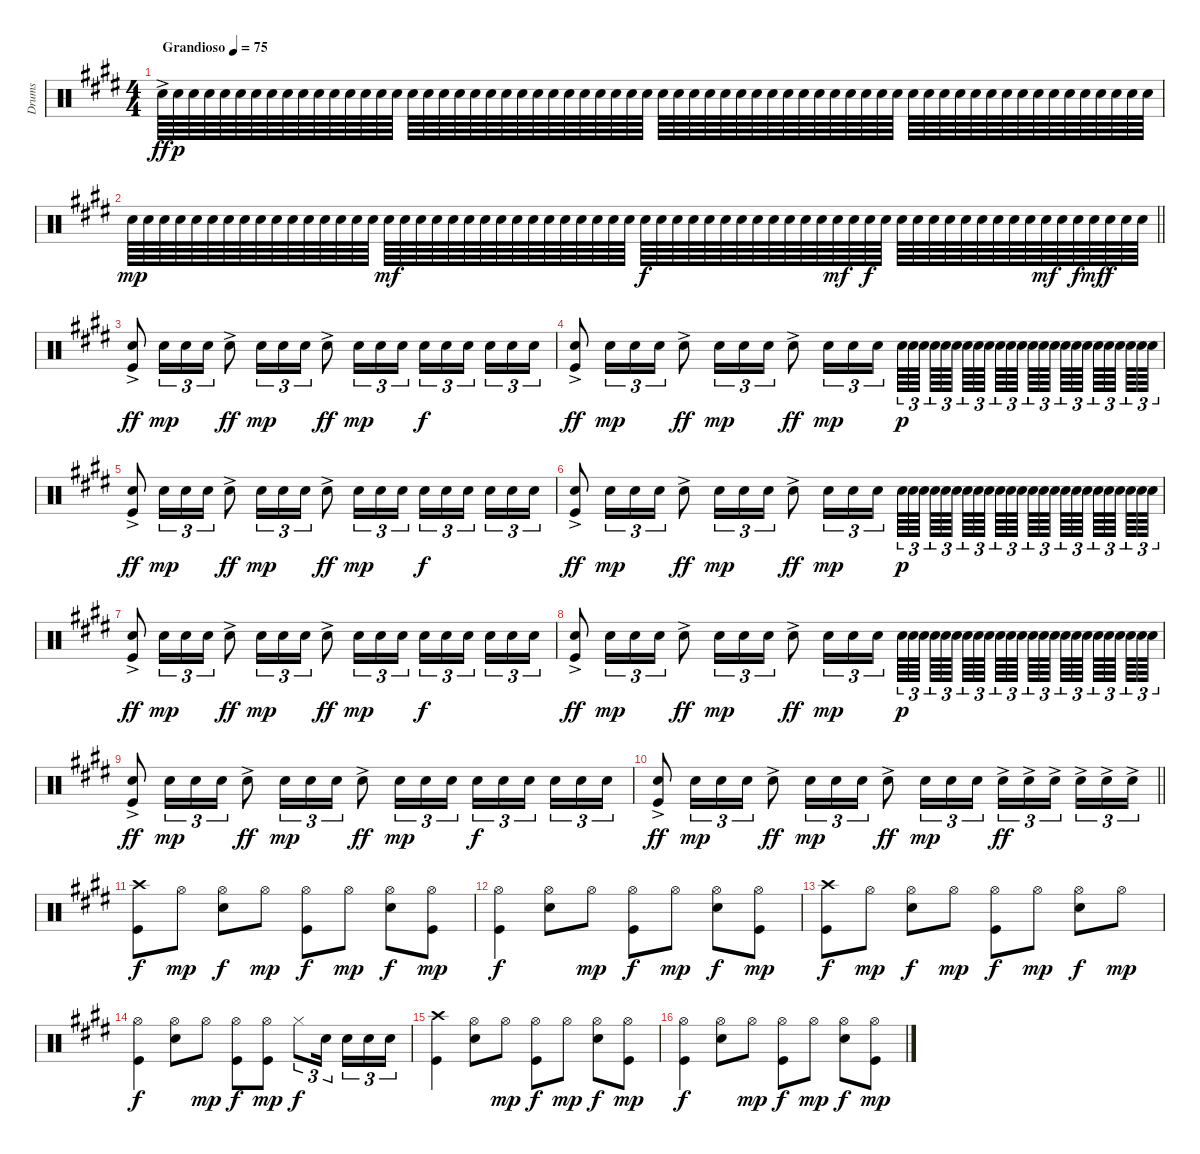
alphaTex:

\track ("Drums" "Drums") {instrument percussion}
\staff {score}
\articulation defaults
\ts (4 4)
\tempo (75 "Grandioso")
\clef neutral
\ks e "Snare (hit) 2"{ac}.64{dy ff} "Snare (hit) 2".64{dy p} "Snare (hit) 2".64 "Snare (hit) 2".64 "Snare (hit) 2".64 "Snare (hit) 2".64 "Snare (hit) 2".64 "Snare (hit) 2".64 "Snare (hit) 2".64 "Snare (hit) 2".64 "Snare (hit) 2".64 "Snare (hit) 2".64 "Snare (hit) 2".64 "Snare (hit) 2".64 "Snare (hit) 2".64 "Snare (hit) 2".64 "Snare (hit) 2".64 "Snare (hit) 2".64 "Snare (hit) 2".64 "Snare (hit) 2".64 "Snare (hit) 2".64 "Snare (hit) 2".64 "Snare (hit) 2".64 "Snare (hit) 2".64 "Snare (hit) 2".64 "Snare (hit) 2".64 "Snare (hit) 2".64 "Snare (hit) 2".64 "Snare (hit) 2".64 "Snare (hit) 2".64 "Snare (hit) 2".64 "Snare (hit) 2".64 "Snare (hit) 2".64 "Snare (hit) 2".64 "Snare (hit) 2".64 "Snare (hit) 2".64 "Snare (hit) 2".64 "Snare (hit) 2".64 "Snare (hit) 2".64 "Snare (hit) 2".64 "Snare (hit) 2".64 "Snare (hit) 2".64 "Snare (hit) 2".64 "Snare (hit) 2".64 "Snare (hit) 2".64 "Snare (hit) 2".64 "Snare (hit) 2".64 "Snare (hit) 2".64 "Snare (hit) 2".64 "Snare (hit) 2".64 "Snare (hit) 2".64 "Snare (hit) 2".64 "Snare (hit) 2".64 "Snare (hit) 2".64 "Snare (hit) 2".64 "Snare (hit) 2".64 "Snare (hit) 2".64 "Snare (hit) 2".64 "Snare (hit) 2".64 "Snare (hit) 2".64 "Snare (hit) 2".64 "Snare (hit) 2".64 "Snare (hit) 2".64 "Snare (hit) 2".64
|
\barLineRight lightlight "Snare (hit) 2".64{dy mp} "Snare (hit) 2".64 "Snare (hit) 2".64 "Snare (hit) 2".64 "Snare (hit) 2".64 "Snare (hit) 2".64 "Snare (hit) 2".64 "Snare (hit) 2".64 "Snare (hit) 2".64 "Snare (hit) 2".64 "Snare (hit) 2".64 "Snare (hit) 2".64 "Snare (hit) 2".64 "Snare (hit) 2".64 "Snare (hit) 2".64 "Snare (hit) 2".64 "Snare (hit) 2".64{dy mf} "Snare (hit) 2".64 "Snare (hit) 2".64 "Snare (hit) 2".64 "Snare (hit) 2".64 "Snare (hit) 2".64 "Snare (hit) 2".64 "Snare (hit) 2".64 "Snare (hit) 2".64 "Snare (hit) 2".64 "Snare (hit) 2".64 "Snare (hit) 2".64 "Snare (hit) 2".64 "Snare (hit) 2".64 "Snare (hit) 2".64 "Snare (hit) 2".64 "Snare (hit) 2".64{dy f} "Snare (hit) 2".64 "Snare (hit) 2".64 "Snare (hit) 2".64 "Snare (hit) 2".64 "Snare (hit) 2".64 "Snare (hit) 2".64 "Snare (hit) 2".64 "Snare (hit) 2".64 "Snare (hit) 2".64 "Snare (hit) 2".64 "Snare (hit) 2".64 "Snare (hit) 2".64{dy mf} "Snare (hit) 2".64 "Snare (hit) 2".64{dy f} "Snare (hit) 2".64 "Snare (hit) 2".64 "Snare (hit) 2".64 "Snare (hit) 2".64 "Snare (hit) 2".64 "Snare (hit) 2".64 "Snare (hit) 2".64 "Snare (hit) 2".64 "Snare (hit) 2".64 "Snare (hit) 2".64 "Snare (hit) 2".64{dy mf} "Snare (hit) 2".64 "Snare (hit) 2".64{dy f} "Snare (hit) 2".64{dy mf} "Snare (hit) 2".64{dy f} "Snare (hit) 2".64 "Snare (hit) 2".64
|
("Snare (hit) 2"{ac} "Kick (hit)").8{dy ff} "Snare (hit) 2".16{tu (3 2) dy mp} "Snare (hit) 2".16{tu (3 2)} "Snare (hit) 2".16{tu (3 2)} "Snare (hit) 2"{ac}.8{dy ff} "Snare (hit) 2".16{tu (3 2) dy mp} "Snare (hit) 2".16{tu (3 2)} "Snare (hit) 2".16{tu (3 2)} "Snare (hit) 2"{ac}.8{dy ff} "Snare (hit) 2".16{tu (3 2) dy mp} "Snare (hit) 2".16{tu (3 2)} "Snare (hit) 2".16{tu (3 2)} "Snare (hit) 2".16{tu (3 2) dy f} "Snare (hit) 2".16{tu (3 2)} "Snare (hit) 2".16{tu (3 2) beam splitsecondary} "Snare (hit) 2".16{tu (3 2)} "Snare (hit) 2".16{tu (3 2)} "Snare (hit) 2".16{tu (3 2)} |
("Snare (hit) 2"{ac} "Kick (hit)").8{dy ff} "Snare (hit) 2".16{tu (3 2) dy mp} "Snare (hit) 2".16{tu (3 2)} "Snare (hit) 2".16{tu (3 2)} "Snare (hit) 2"{ac}.8{dy ff} "Snare (hit) 2".16{tu (3 2) dy mp} "Snare (hit) 2".16{tu (3 2)} "Snare (hit) 2".16{tu (3 2)} "Snare (hit) 2"{ac}.8{dy ff} "Snare (hit) 2".16{tu (3 2) dy mp} "Snare (hit) 2".16{tu (3 2)} "Snare (hit) 2".16{tu (3 2)} "Snare (hit) 2".64{tu (3 2) dy p} "Snare (hit) 2".64{tu (3 2)} "Snare (hit) 2".64{tu (3 2) beam splitsecondary} "Snare (hit) 2".64{tu (3 2)} "Snare (hit) 2".64{tu (3 2)} "Snare (hit) 2".64{tu (3 2) beam splitsecondary} "Snare (hit) 2".64{tu (3 2)} "Snare (hit) 2".64{tu (3 2)} "Snare (hit) 2".64{tu (3 2) beam splitsecondary} "Snare (hit) 2".64{tu (3 2)} "Snare (hit) 2".64{tu (3 2)} "Snare (hit) 2".64{tu (3 2) beam splitsecondary} "Snare (hit) 2".64{tu (3 2)} "Snare (hit) 2".64{tu (3 2)} "Snare (hit) 2".64{tu (3 2) beam splitsecondary} "Snare (hit) 2".64{tu (3 2)} "Snare (hit) 2".64{tu (3 2)} "Snare (hit) 2".64{tu (3 2) beam splitsecondary} "Snare (hit) 2".64{tu (3 2)} "Snare (hit) 2".64{tu (3 2)} "Snare (hit) 2".64{tu (3 2) beam splitsecondary} "Snare (hit) 2".64{tu (3 2)} "Snare (hit) 2".64{tu (3 2)} "Snare (hit) 2".64{tu (3 2)} |
("Snare (hit) 2"{ac} "Kick (hit)").8{dy ff} "Snare (hit) 2".16{tu (3 2) dy mp} "Snare (hit) 2".16{tu (3 2)} "Snare (hit) 2".16{tu (3 2)} "Snare (hit) 2"{ac}.8{dy ff} "Snare (hit) 2".16{tu (3 2) dy mp} "Snare (hit) 2".16{tu (3 2)} "Snare (hit) 2".16{tu (3 2)} "Snare (hit) 2"{ac}.8{dy ff} "Snare (hit) 2".16{tu (3 2) dy mp} "Snare (hit) 2".16{tu (3 2)} "Snare (hit) 2".16{tu (3 2)} "Snare (hit) 2".16{tu (3 2) dy f} "Snare (hit) 2".16{tu (3 2)} "Snare (hit) 2".16{tu (3 2) beam splitsecondary} "Snare (hit) 2".16{tu (3 2)} "Snare (hit) 2".16{tu (3 2)} "Snare (hit) 2".16{tu (3 2)} |
("Snare (hit) 2"{ac} "Kick (hit)").8{dy ff} "Snare (hit) 2".16{tu (3 2) dy mp} "Snare (hit) 2".16{tu (3 2)} "Snare (hit) 2".16{tu (3 2)} "Snare (hit) 2"{ac}.8{dy ff} "Snare (hit) 2".16{tu (3 2) dy mp} "Snare (hit) 2".16{tu (3 2)} "Snare (hit) 2".16{tu (3 2)} "Snare (hit) 2"{ac}.8{dy ff} "Snare (hit) 2".16{tu (3 2) dy mp} "Snare (hit) 2".16{tu (3 2)} "Snare (hit) 2".16{tu (3 2)} "Snare (hit) 2".64{tu (3 2) dy p} "Snare (hit) 2".64{tu (3 2)} "Snare (hit) 2".64{tu (3 2) beam splitsecondary} "Snare (hit) 2".64{tu (3 2)} "Snare (hit) 2".64{tu (3 2)} "Snare (hit) 2".64{tu (3 2) beam splitsecondary} "Snare (hit) 2".64{tu (3 2)} "Snare (hit) 2".64{tu (3 2)} "Snare (hit) 2".64{tu (3 2) beam splitsecondary} "Snare (hit) 2".64{tu (3 2)} "Snare (hit) 2".64{tu (3 2)} "Snare (hit) 2".64{tu (3 2) beam splitsecondary} "Snare (hit) 2".64{tu (3 2)} "Snare (hit) 2".64{tu (3 2)} "Snare (hit) 2".64{tu (3 2) beam splitsecondary} "Snare (hit) 2".64{tu (3 2)} "Snare (hit) 2".64{tu (3 2)} "Snare (hit) 2".64{tu (3 2) beam splitsecondary} "Snare (hit) 2".64{tu (3 2)} "Snare (hit) 2".64{tu (3 2)} "Snare (hit) 2".64{tu (3 2) beam splitsecondary} "Snare (hit) 2".64{tu (3 2)} "Snare (hit) 2".64{tu (3 2)} "Snare (hit) 2".64{tu (3 2)} |
("Snare (hit) 2"{ac} "Kick (hit)").8{dy ff} "Snare (hit) 2".16{tu (3 2) dy mp} "Snare (hit) 2".16{tu (3 2)} "Snare (hit) 2".16{tu (3 2)} "Snare (hit) 2"{ac}.8{dy ff} "Snare (hit) 2".16{tu (3 2) dy mp} "Snare (hit) 2".16{tu (3 2)} "Snare (hit) 2".16{tu (3 2)} "Snare (hit) 2"{ac}.8{dy ff} "Snare (hit) 2".16{tu (3 2) dy mp} "Snare (hit) 2".16{tu (3 2)} "Snare (hit) 2".16{tu (3 2)} "Snare (hit) 2".16{tu (3 2) dy f} "Snare (hit) 2".16{tu (3 2)} "Snare (hit) 2".16{tu (3 2) beam splitsecondary} "Snare (hit) 2".16{tu (3 2)} "Snare (hit) 2".16{tu (3 2)} "Snare (hit) 2".16{tu (3 2)} |
("Snare (hit) 2"{ac} "Kick (hit)").8{dy ff} "Snare (hit) 2".16{tu (3 2) dy mp} "Snare (hit) 2".16{tu (3 2)} "Snare (hit) 2".16{tu (3 2)} "Snare (hit) 2"{ac}.8{dy ff} "Snare (hit) 2".16{tu (3 2) dy mp} "Snare (hit) 2".16{tu (3 2)} "Snare (hit) 2".16{tu (3 2)} "Snare (hit) 2"{ac}.8{dy ff} "Snare (hit) 2".16{tu (3 2) dy mp} "Snare (hit) 2".16{tu (3 2)} "Snare (hit) 2".16{tu (3 2)} "Snare (hit) 2".64{tu (3 2) dy p} "Snare (hit) 2".64{tu (3 2)} "Snare (hit) 2".64{tu (3 2) beam splitsecondary} "Snare (hit) 2".64{tu (3 2)} "Snare (hit) 2".64{tu (3 2)} "Snare (hit) 2".64{tu (3 2) beam splitsecondary} "Snare (hit) 2".64{tu (3 2)} "Snare (hit) 2".64{tu (3 2)} "Snare (hit) 2".64{tu (3 2) beam splitsecondary} "Snare (hit) 2".64{tu (3 2)} "Snare (hit) 2".64{tu (3 2)} "Snare (hit) 2".64{tu (3 2) beam splitsecondary} "Snare (hit) 2".64{tu (3 2)} "Snare (hit) 2".64{tu (3 2)} "Snare (hit) 2".64{tu (3 2) beam splitsecondary} "Snare (hit) 2".64{tu (3 2)} "Snare (hit) 2".64{tu (3 2)} "Snare (hit) 2".64{tu (3 2) beam splitsecondary} "Snare (hit) 2".64{tu (3 2)} "Snare (hit) 2".64{tu (3 2)} "Snare (hit) 2".64{tu (3 2) beam splitsecondary} "Snare (hit) 2".64{tu (3 2)} "Snare (hit) 2".64{tu (3 2)} "Snare (hit) 2".64{tu (3 2)} |
("Snare (hit) 2"{ac} "Kick (hit)").8{dy ff} "Snare (hit) 2".16{tu (3 2) dy mp} "Snare (hit) 2".16{tu (3 2)} "Snare (hit) 2".16{tu (3 2)} "Snare (hit) 2"{ac}.8{dy ff} "Snare (hit) 2".16{tu (3 2) dy mp} "Snare (hit) 2".16{tu (3 2)} "Snare (hit) 2".16{tu (3 2)} "Snare (hit) 2"{ac}.8{dy ff} "Snare (hit) 2".16{tu (3 2) dy mp} "Snare (hit) 2".16{tu (3 2)} "Snare (hit) 2".16{tu (3 2)} "Snare (hit) 2".16{tu (3 2) dy f} "Snare (hit) 2".16{tu (3 2)} "Snare (hit) 2".16{tu (3 2) beam splitsecondary} "Snare (hit) 2".16{tu (3 2)} "Snare (hit) 2".16{tu (3 2)} "Snare (hit) 2".16{tu (3 2)} |
\barLineRight lightlight
("Snare (hit) 2"{ac} "Kick (hit)").8{dy ff} "Snare (hit) 2".16{tu (3 2) dy mp} "Snare (hit) 2".16{tu (3 2)} "Snare (hit) 2".16{tu (3 2)} "Snare (hit) 2"{ac}.8{dy ff} "Snare (hit) 2".16{tu (3 2) dy mp} "Snare (hit) 2".16{tu (3 2)} "Snare (hit) 2".16{tu (3 2)} "Snare (hit) 2"{ac}.8{dy ff} "Snare (hit) 2".16{tu (3 2) dy mp} "Snare (hit) 2".16{tu (3 2)} "Snare (hit) 2".16{tu (3 2)} "Snare (hit) 2"{ac}.16{tu (3 2) dy ff} "Snare (hit) 2"{ac}.16{tu (3 2)} "Snare (hit) 2"{ac}.16{tu (3 2) beam splitsecondary} "Snare (hit) 2"{ac}.16{tu (3 2)} "Snare (hit) 2"{ac}.16{tu (3 2)} "Snare (hit) 2"{ac}.16{tu (3 2)} |
("Crash high (hit)" "Kick (hit)").8{dy f} "Hi-Hat (open)".8{dy mp} ("Hi-Hat (open)" "Snare (hit) 2").8{dy f} "Hi-Hat (open)".8{dy mp} ("Hi-Hat (open)" "Kick (hit)").8{dy f} "Hi-Hat (open)".8{dy mp} ("Hi-Hat (open)" "Snare (hit) 2").8{dy f} ("Hi-Hat (open)" "Kick (hit)").8{dy mp} |
("Hi-Hat (open)" "Kick (hit)").4{dy f} ("Hi-Hat (open)" "Snare (hit) 2").8 "Hi-Hat (open)".8{dy mp} ("Hi-Hat (open)" "Kick (hit)").8{dy f} "Hi-Hat (open)".8{dy mp} ("Hi-Hat (open)" "Snare (hit) 2").8{dy f} ("Hi-Hat (open)" "Kick (hit)").8{dy mp} |
("Crash high (hit)" "Kick (hit)").8{dy f} "Hi-Hat (open)".8{dy mp} ("Hi-Hat (open)" "Snare (hit) 2").8{dy f} "Hi-Hat (open)".8{dy mp} ("Hi-Hat (open)" "Kick (hit)").8{dy f} "Hi-Hat (open)".8{dy mp} ("Hi-Hat (open)" "Snare (hit) 2").8{dy f} "Hi-Hat (open)".8{dy mp} |
("Hi-Hat (open)" "Kick (hit)").4{dy f} ("Hi-Hat (open)" "Snare (hit) 2").8 "Hi-Hat (open)".8{dy mp} ("Hi-Hat (open)" "Kick (hit)").8{dy f} ("Hi-Hat (open)" "Kick (hit)").8{dy mp} "Hi-Hat (closed)".8{tu (3 2) dy f} "Snare (hit) 2".16{tu (3 2) beam splitsecondary} "Snare (hit) 2".16{tu (3 2)} "Snare (hit) 2".16{tu (3 2)} "Snare (hit) 2".16{tu (3 2)} |
("Crash high (hit)" "Kick (hit)").4 ("Hi-Hat (open)" "Snare (hit) 2").8 "Hi-Hat (open)".8{dy mp} ("Hi-Hat (open)" "Kick (hit)").8{dy f} "Hi-Hat (open)".8{dy mp} ("Hi-Hat (open)" "Snare (hit) 2").8{dy f} ("Hi-Hat (open)" "Kick (hit)").8{dy mp} |
("Hi-Hat (open)" "Kick (hit)").4{dy f} ("Hi-Hat (open)" "Snare (hit) 2").8 "Hi-Hat (open)".8{dy mp} ("Hi-Hat (open)" "Kick (hit)").8{dy f} "Hi-Hat (open)".8{dy mp} ("Hi-Hat (open)" "Snare (hit) 2").8{dy f} ("Hi-Hat (open)" "Kick (hit)").8{dy mp}
